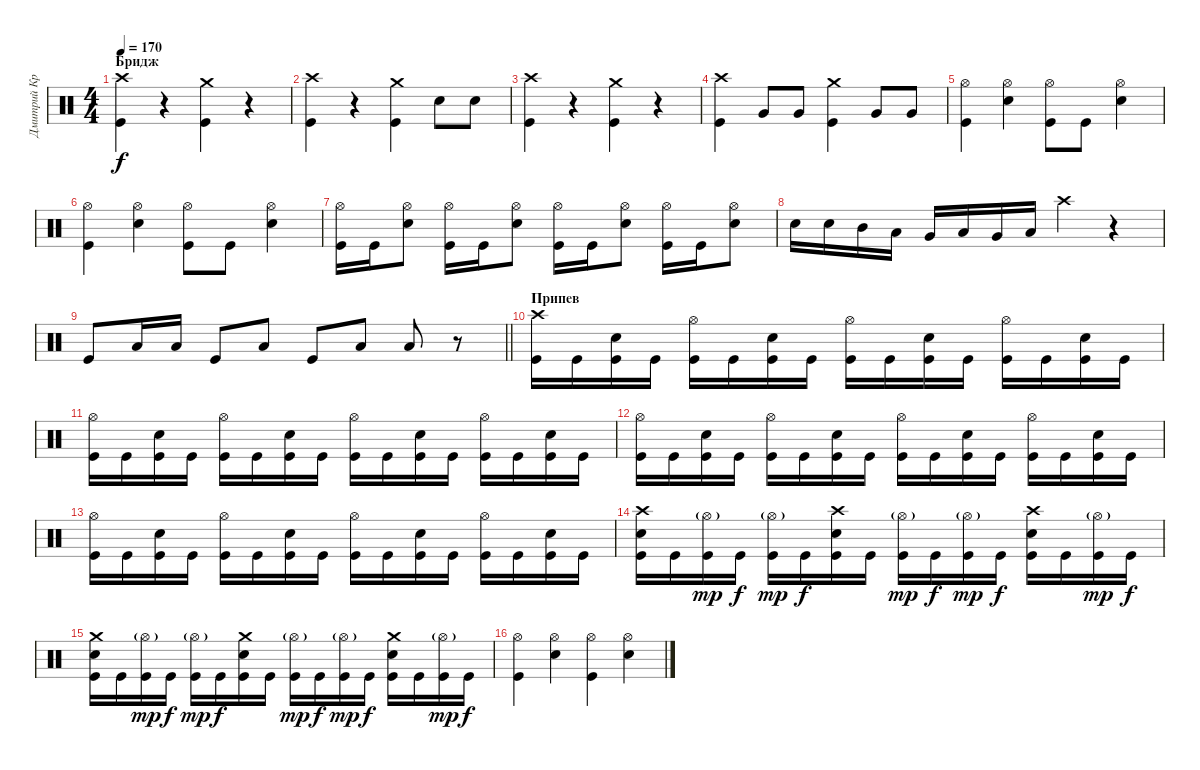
\track ("Дмитрий Кривенков" "Дмитрий Кр") {instrument percussion}
\staff {score}
\articulation defaults
\ts (4 4)
\section ("" "Бридж")
\tempo 170
\clef neutral
\ks c
("Crash high (hit)" "Kick (hit)").4{dy f} r.4 ("Crash medium (hit)" "Kick (hit)").4 r.4 |
("Crash high (hit)" "Kick (hit)").4 r.4 ("Crash medium (hit)" "Kick (hit)").4 "Snare (hit) 2".8 "Snare (hit) 2".8 |
("Crash high (hit)" "Kick (hit)").4 r.4 ("Crash medium (hit)" "Kick (hit)").4 r.4 |
("Crash high (hit)" "Kick (hit)").4 "Very Low Tom (hit)".8 "Very Low Tom (hit)".8 ("Crash medium (hit)" "Kick (hit)").4 "Very Low Tom (hit)".8 "Very Low Tom (hit)".8 |
("Hi-Hat (open)" "Kick (hit)").4 ("Hi-Hat (open)" "Snare (hit) 2").4 ("Hi-Hat (open)" "Kick (hit)").8 "Kick (hit)".8 ("Hi-Hat (open)" "Snare (hit) 2").4 |
("Hi-Hat (open)" "Kick (hit)").4 ("Hi-Hat (open)" "Snare (hit) 2").4 ("Hi-Hat (open)" "Kick (hit)").8 "Kick (hit)".8 ("Hi-Hat (open)" "Snare (hit) 2").4 |
("Hi-Hat (open)" "Kick (hit)").16 "Kick (hit)".16 ("Hi-Hat (open)" "Snare (hit) 2").8 ("Hi-Hat (open)" "Kick (hit)").16 "Kick (hit)".16 ("Hi-Hat (open)" "Snare (hit) 2").8 ("Hi-Hat (open)" "Kick (hit)").16 "Kick (hit)".16 ("Hi-Hat (open)" "Snare (hit) 2").8 ("Hi-Hat (open)" "Kick (hit)").16 "Kick (hit)".16 ("Hi-Hat (open)" "Snare (hit) 2").8 |
"Snare (hit) 2".16 "Snare (hit) 2".16 "Mid Tom (hit)".16 "Low Tom (hit)".16 "Very Low Tom (hit)".16 "Low Floor Tom (hit)".16 "Very Low Tom (hit)".16 "Low Tom (hit)".16 "Crash high (hit)".4 r.4 |
\barLineRight lightlight "Kick (hit)".8 "Low Tom (hit)".16 "Low Tom (hit)".16 "Kick (hit)".8 "Low Tom (hit)".8 "Kick (hit)".8 "Low Tom (hit)".8 "Low Tom (hit)".8
r.8 |
\section ("" "Припев")
("Crash high (hit)" "Kick (hit)").16 "Kick (hit)".16 ("Snare (hit) 2" "Kick (hit)").16 "Kick (hit)".16 ("Hi-Hat (open)" "Kick (hit)").16 "Kick (hit)".16 ("Snare (hit) 2" "Kick (hit)").16 "Kick (hit)".16 ("Hi-Hat (open)" "Kick (hit)").16 "Kick (hit)".16 ("Snare (hit) 2" "Kick (hit)").16 "Kick (hit)".16 ("Hi-Hat (open)" "Kick (hit)").16 "Kick (hit)".16 ("Snare (hit) 2" "Kick (hit)").16 "Kick (hit)".16 |
("Hi-Hat (open)" "Kick (hit)").16 "Kick (hit)".16 ("Snare (hit) 2" "Kick (hit)").16 "Kick (hit)".16 ("Hi-Hat (open)" "Kick (hit)").16 "Kick (hit)".16 ("Snare (hit) 2" "Kick (hit)").16 "Kick (hit)".16 ("Hi-Hat (open)" "Kick (hit)").16 "Kick (hit)".16 ("Snare (hit) 2" "Kick (hit)").16 "Kick (hit)".16 ("Hi-Hat (open)" "Kick (hit)").16 "Kick (hit)".16 ("Snare (hit) 2" "Kick (hit)").16 "Kick (hit)".16 |
("Hi-Hat (open)" "Kick (hit)").16 "Kick (hit)".16 ("Snare (hit) 2" "Kick (hit)").16 "Kick (hit)".16 ("Hi-Hat (open)" "Kick (hit)").16 "Kick (hit)".16 ("Snare (hit) 2" "Kick (hit)").16 "Kick (hit)".16 ("Hi-Hat (open)" "Kick (hit)").16 "Kick (hit)".16 ("Snare (hit) 2" "Kick (hit)").16 "Kick (hit)".16 ("Hi-Hat (open)" "Kick (hit)").16 "Kick (hit)".16 ("Snare (hit) 2" "Kick (hit)").16 "Kick (hit)".16 |
("Hi-Hat (open)" "Kick (hit)").16 "Kick (hit)".16 ("Snare (hit) 2" "Kick (hit)").16 "Kick (hit)".16 ("Hi-Hat (open)" "Kick (hit)").16 "Kick (hit)".16 ("Snare (hit) 2" "Kick (hit)").16 "Kick (hit)".16 ("Hi-Hat (open)" "Kick (hit)").16 "Kick (hit)".16 ("Snare (hit) 2" "Kick (hit)").16 "Kick (hit)".16 ("Hi-Hat (open)" "Kick (hit)").16 "Kick (hit)".16 ("Snare (hit) 2" "Kick (hit)").16 "Kick (hit)".16 |
("Crash high (hit)" "Snare (hit) 2" "Kick (hit)").16 "Kick (hit)".16 ("Hi-Hat (open)"{g} "Kick (hit)").16{dy mp} "Kick (hit)".16{dy f} ("Hi-Hat (open)"{g} "Kick (hit)").16{dy mp} "Kick (hit)".16{dy f} ("Crash high (hit)" "Snare (hit) 2" "Kick (hit)").16 "Kick (hit)".16 ("Hi-Hat (open)"{g} "Kick (hit)").16{dy mp} "Kick (hit)".16{dy f} ("Hi-Hat (open)"{g} "Kick (hit)").16{dy mp} "Kick (hit)".16{dy f} ("Crash high (hit)" "Snare (hit) 2" "Kick (hit)").16 "Kick (hit)".16 ("Hi-Hat (open)"{g} "Kick (hit)").16{dy mp} "Kick (hit)".16{dy f} |
("Crash medium (hit)" "Snare (hit) 2" "Kick (hit)").16 "Kick (hit)".16 ("Hi-Hat (open)"{g} "Kick (hit)").16{dy mp} "Kick (hit)".16{dy f} ("Hi-Hat (open)"{g} "Kick (hit)").16{dy mp} "Kick (hit)".16{dy f} ("Crash medium (hit)" "Snare (hit) 2" "Kick (hit)").16 "Kick (hit)".16 ("Hi-Hat (open)"{g} "Kick (hit)").16{dy mp} "Kick (hit)".16{dy f} ("Hi-Hat (open)"{g} "Kick (hit)").16{dy mp} "Kick (hit)".16{dy f} ("Crash medium (hit)" "Snare (hit) 2" "Kick (hit)").16 "Kick (hit)".16 ("Hi-Hat (open)"{g} "Kick (hit)").16{dy mp} "Kick (hit)".16{dy f} |
("Hi-Hat (open)" "Kick (hit)").4 ("Hi-Hat (open)" "Snare (hit) 2").4 ("Hi-Hat (open)" "Kick (hit)").4 ("Hi-Hat (open)" "Snare (hit) 2").4
